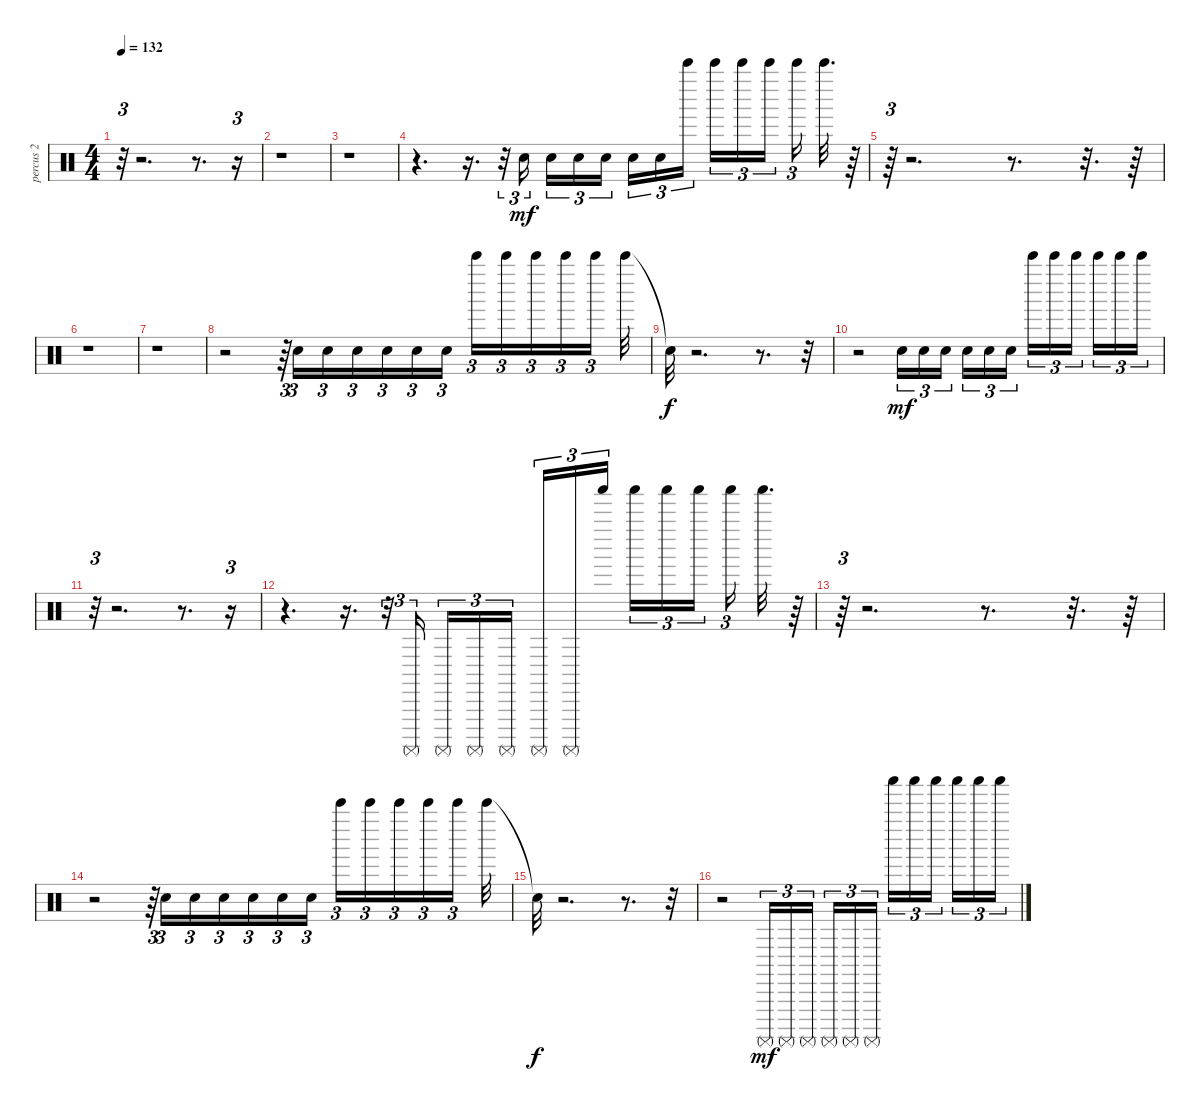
\track ("percus 2" "percus 2") {instrument percussion}
\staff {score}
\articulation defaults
\ts (4 4)
\tempo 132
\clef neutral
\ks c
r.32{tu (3 2) dy mf} r.2{d} r.8{d} r.16{tu (3 2)} |
r.1 |
r.1 |
r.4{d} r.16{d} r.32{tu (3 2)} "Snare (hit)".16{tu (3 2)} "Snare (hit)".16{tu (3 2)} "Snare (hit)".16{tu (3 2)} "Snare (hit)".16{tu (3 2)} "Snare (hit)".16{tu (3 2)} "Snare (hit)".16{tu (3 2)} "Bell Tree (hit)".16{tu (3 2)} "Bell Tree (hit)".16{tu (3 2)} "Bell Tree (hit)".16{tu (3 2)} "Bell Tree (hit)".16{tu (3 2)} "Bell Tree (hit)".16{tu (3 2)} "Bell Tree (hit)".32{d} r.64 |
r.64{tu (3 2)} r.2{d} r.8{d} r.32{d} r.64 |
r.1 |
r.1 |
r.2 r.64{tu (3 2)} "Snare (hit)".16{tu (3 2)} "Snare (hit)".16{tu (3 2)} "Snare (hit)".16{tu (3 2)} "Snare (hit)".16{tu (3 2)} "Snare (hit)".16{tu (3 2)} "Snare (hit)".16{tu (3 2)} "Bell Tree (hit)".16{tu (3 2)} "Bell Tree (hit)".16{tu (3 2)} "Bell Tree (hit)".16{tu (3 2)} "Bell Tree (hit)".16{tu (3 2)} "Bell Tree (hit)".16{tu (3 2)} "Bell Tree (hit)".32 |
"Snare (hit)"{t}.32{dy f} r.2{d} r.8{d} r.32 |
r.2 "Snare (hit)".16{tu (3 2) dy mf} "Snare (hit)".16{tu (3 2)} "Snare (hit)".16{tu (3 2)} "Snare (hit)".16{tu (3 2)} "Snare (hit)".16{tu (3 2)} "Snare (hit)".16{tu (3 2)} "Bell Tree (hit)".16{tu (3 2)} "Bell Tree (hit)".16{tu (3 2)} "Bell Tree (hit)".16{tu (3 2)} "Bell Tree (hit)".16{tu (3 2)} "Bell Tree (hit)".16{tu (3 2)} "Bell Tree (hit)".16{tu (3 2)} |
r.32{tu (3 2)} r.2{d} r.8{d} r.16{tu (3 2)} |
r.4{d} r.16{d} r.32{tu (3 2)} "Surdo (mute)".16{tu (3 2)} "Surdo (mute)".16{tu (3 2)} "Surdo (mute)".16{tu (3 2)} "Surdo (mute)".16{tu (3 2)} "Surdo (mute)".16{tu (3 2)} "Surdo (mute)".16{tu (3 2)} "Shaker (hit)".16{tu (3 2)} "Shaker (hit)".16{tu (3 2)} "Shaker (hit)".16{tu (3 2)} "Shaker (hit)".16{tu (3 2)} "Shaker (hit)".16{tu (3 2)} "Shaker (hit)".32{d} r.64 |
r.64{tu (3 2)} r.2{d} r.8{d} r.32{d} r.64 |
r.2 r.64{tu (3 2)} "Snare (hit)".16{tu (3 2)} "Snare (hit)".16{tu (3 2)} "Snare (hit)".16{tu (3 2)} "Snare (hit)".16{tu (3 2)} "Snare (hit)".16{tu (3 2)} "Snare (hit)".16{tu (3 2)} "Bell Tree (hit)".16{tu (3 2)} "Bell Tree (hit)".16{tu (3 2)} "Bell Tree (hit)".16{tu (3 2)} "Bell Tree (hit)".16{tu (3 2)} "Bell Tree (hit)".16{tu (3 2)} "Bell Tree (hit)".32 |
"Snare (hit)"{t}.32{dy f} r.2{d} r.8{d} r.32 |
r.2 "Surdo (mute)".16{tu (3 2) dy mf} "Surdo (mute)".16{tu (3 2)} "Surdo (mute)".16{tu (3 2)} "Surdo (mute)".16{tu (3 2)} "Surdo (mute)".16{tu (3 2)} "Surdo (mute)".16{tu (3 2)} "Shaker (hit)".16{tu (3 2)} "Shaker (hit)".16{tu (3 2)} "Shaker (hit)".16{tu (3 2)} "Shaker (hit)".16{tu (3 2)} "Shaker (hit)".16{tu (3 2)} "Shaker (hit)".16{tu (3 2)}
